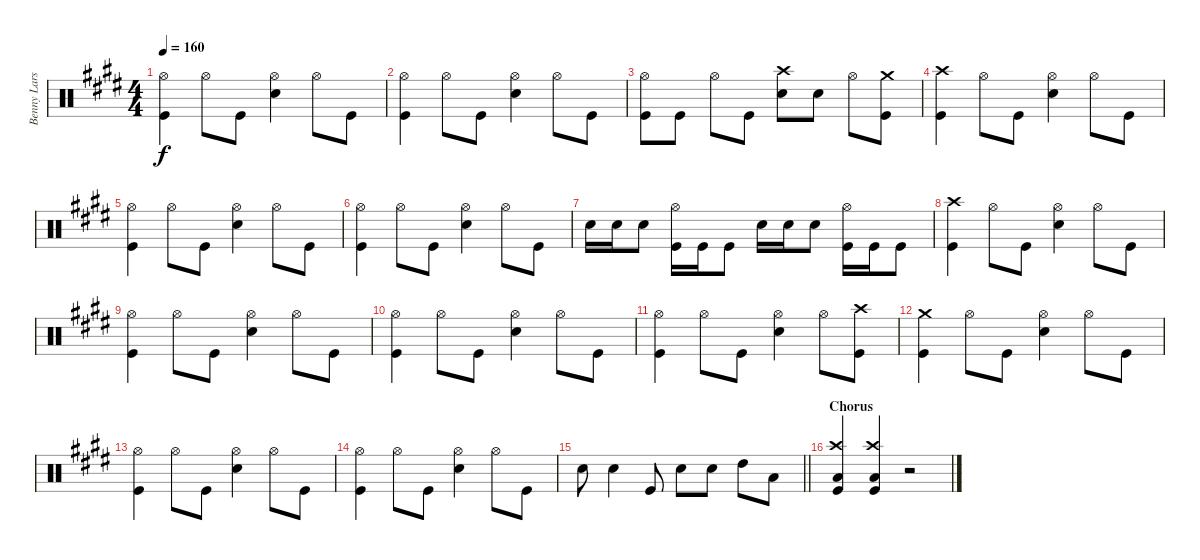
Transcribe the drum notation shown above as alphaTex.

\track ("Benny Larsson" "Benny Lars") {instrument percussion}
\staff {score}
\articulation defaults
\ts (4 4)
\tempo 160
\clef neutral
\ks e
("Hi-Hat (open)" "Kick (hit)").4{dy f} "Hi-Hat (open)".8 "Kick (hit)".8 ("Hi-Hat (open)" "Snare (hit) 2").4 "Hi-Hat (open)".8 "Kick (hit)".8 |
("Hi-Hat (open)" "Kick (hit)").4 "Hi-Hat (open)".8 "Kick (hit)".8 ("Hi-Hat (open)" "Snare (hit) 2").4 "Hi-Hat (open)".8 "Kick (hit)".8 |
("Hi-Hat (open)" "Kick (hit)").8 "Kick (hit)".8 "Hi-Hat (open)".8 "Kick (hit)".8 ("Crash high (hit)" "Snare (hit) 2").8 "Snare (hit) 2".8 "Hi-Hat (open)".8 ("Crash medium (hit)" "Kick (hit)").8 |
("Crash high (hit)" "Kick (hit)").4 "Hi-Hat (open)".8 "Kick (hit)".8 ("Hi-Hat (open)" "Snare (hit) 2").4 "Hi-Hat (open)".8 "Kick (hit)".8 |
("Hi-Hat (open)" "Kick (hit)").4 "Hi-Hat (open)".8 "Kick (hit)".8 ("Hi-Hat (open)" "Snare (hit) 2").4 "Hi-Hat (open)".8 "Kick (hit)".8 |
("Hi-Hat (open)" "Kick (hit)").4 "Hi-Hat (open)".8 "Kick (hit)".8 ("Hi-Hat (open)" "Snare (hit) 2").4 "Hi-Hat (open)".8 "Kick (hit)".8 |
"Snare (hit) 2".16 "Snare (hit) 2".16 "Snare (hit) 2".8 ("Hi-Hat (open)" "Kick (hit)").16 "Kick (hit)".16 "Kick (hit)".8 "Snare (hit) 2".16 "Snare (hit) 2".16 "Snare (hit) 2".8 ("Hi-Hat (open)" "Kick (hit)").16 "Kick (hit)".16 "Kick (hit)".8 |
("Crash high (hit)" "Kick (hit)").4 "Hi-Hat (open)".8 "Kick (hit)".8 ("Hi-Hat (open)" "Snare (hit) 2").4 "Hi-Hat (open)".8 "Kick (hit)".8 |
("Hi-Hat (open)" "Kick (hit)").4 "Hi-Hat (open)".8 "Kick (hit)".8 ("Hi-Hat (open)" "Snare (hit) 2").4 "Hi-Hat (open)".8 "Kick (hit)".8 |
("Hi-Hat (open)" "Kick (hit)").4 "Hi-Hat (open)".8 "Kick (hit)".8 ("Hi-Hat (open)" "Snare (hit) 2").4 "Hi-Hat (open)".8 "Kick (hit)".8 |
("Hi-Hat (open)" "Kick (hit)").4 "Hi-Hat (open)".8 "Kick (hit)".8 ("Hi-Hat (open)" "Snare (hit) 2").4 "Hi-Hat (open)".8 ("Crash high (hit)" "Kick (hit)").8 |
("Crash medium (hit)" "Kick (hit)").4 "Hi-Hat (open)".8 "Kick (hit)".8 ("Hi-Hat (open)" "Snare (hit) 2").4 "Hi-Hat (open)".8 "Kick (hit)".8 |
("Hi-Hat (open)" "Kick (hit)").4 "Hi-Hat (open)".8 "Kick (hit)".8 ("Hi-Hat (open)" "Snare (hit) 2").4 "Hi-Hat (open)".8 "Kick (hit)".8 |
("Hi-Hat (open)" "Kick (hit)").4 "Hi-Hat (open)".8 "Kick (hit)".8 ("Hi-Hat (open)" "Snare (hit) 2").4 "Hi-Hat (open)".8 "Kick (hit)".8 |
\barLineRight lightlight "Snare (hit) 2".8 "Snare (hit) 2".4 "Kick (hit)".8 "Snare (hit) 2".8 "Snare (hit) 2".8 "High Tom (hit)".8 "Low Tom (hit)".8
|
\section ("" "Chorus")
("Crash high (hit)" "Low Floor Tom (hit)" "Kick (hit)").4 ("Crash high (hit)" "Low Floor Tom (hit)" "Kick (hit)").4 r.2
